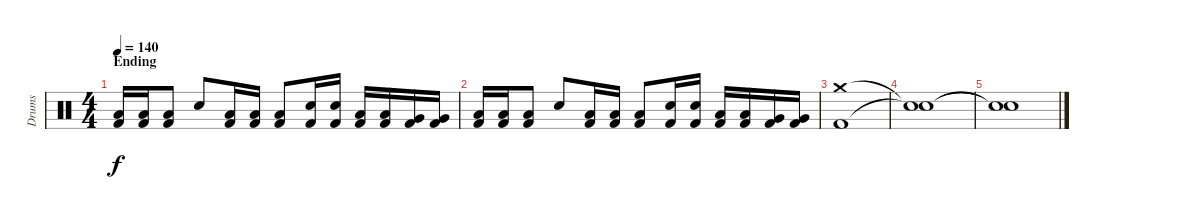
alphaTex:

\track ("Drums" "Drums") {instrument percussion}
\staff {score}
\articulation defaults
\ts (4 4)
\section ("" "Ending")
\tempo 140
\clef neutral
\ks c
("Kick (hit) 2" "Low Tom (hit)").16{dy f} ("Kick (hit) 2" "Low Tom (hit)").16 ("Kick (hit) 2" "Low Tom (hit)").8 "Electric Snare (hit)".8 ("Kick (hit) 2" "Low Tom (hit)").16 ("Kick (hit) 2" "Low Tom (hit)").16 ("Kick (hit) 2" "Low Tom (hit)").8 ("Kick (hit) 2" "Electric Snare (hit)").16 ("Kick (hit) 2" "Electric Snare (hit)").16 ("Kick (hit) 2" "Low Tom (hit)").16 ("Kick (hit) 2" "Low Tom (hit)").16 ("Kick (hit) 2" "Very Low Tom (hit)").16 ("Kick (hit) 2" "Very Low Tom (hit)").16 |
("Kick (hit) 2" "Low Tom (hit)").16 ("Kick (hit) 2" "Low Tom (hit)").16 ("Kick (hit) 2" "Low Tom (hit)").8 "Electric Snare (hit)".8 ("Kick (hit) 2" "Low Tom (hit)").16 ("Kick (hit) 2" "Low Tom (hit)").16 ("Kick (hit) 2" "Low Tom (hit)").8 ("Kick (hit) 2" "Electric Snare (hit)").16 ("Kick (hit) 2" "Electric Snare (hit)").16 ("Kick (hit) 2" "Low Tom (hit)").16 ("Kick (hit) 2" "Low Tom (hit)").16 ("Kick (hit) 2" "Very Low Tom (hit)").16 ("Kick (hit) 2" "Very Low Tom (hit)").16 |
("Kick (hit) 2" "Crash medium (hit)").1 |
("Snare (hit)"{t} "Snare (hit)"{t}).1 |
("Snare (hit)"{t} "Snare (hit)"{t}).1
